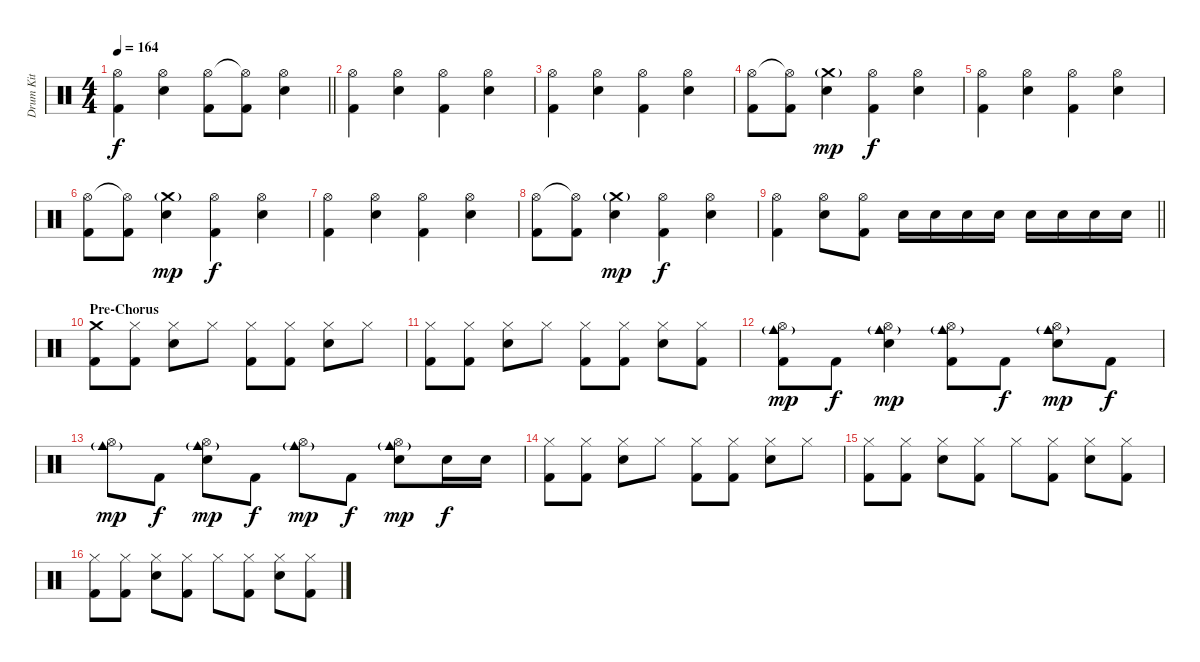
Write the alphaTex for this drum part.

\track ("Drum Kit" "Drum Kit") {instrument percussion}
\staff {score}
\articulation defaults
\ts (4 4)
\tempo 164
\clef neutral
\barLineRight lightlight
\ks c
("Hi-Hat (open)" "Kick (hit) 2").4{dy f} ("Hi-Hat (open)" "Electric Snare (hit)").4 ("Hi-Hat (open)" "Kick (hit) 2").8 ("Hi-Hat (open)"{t} "Kick (hit) 2").8 ("Hi-Hat (open)" "Electric Snare (hit)").4 |
("Hi-Hat (open)" "Kick (hit) 2").4 ("Hi-Hat (open)" "Electric Snare (hit)").4 ("Hi-Hat (open)" "Kick (hit) 2").4 ("Hi-Hat (open)" "Electric Snare (hit)").4 |
("Hi-Hat (open)" "Kick (hit) 2").4 ("Hi-Hat (open)" "Electric Snare (hit)").4 ("Hi-Hat (open)" "Kick (hit) 2").4 ("Hi-Hat (open)" "Electric Snare (hit)").4 |
("Hi-Hat (open)" "Kick (hit) 2").8 ("Hi-Hat (open)"{t} "Kick (hit) 2").8 ("Crash medium (hit)"{g} "Electric Snare (hit)").4{dy mp} ("Hi-Hat (open)" "Kick (hit) 2").4{dy f} ("Hi-Hat (open)" "Electric Snare (hit)").4 |
("Hi-Hat (open)" "Kick (hit) 2").4 ("Hi-Hat (open)" "Electric Snare (hit)").4 ("Hi-Hat (open)" "Kick (hit) 2").4 ("Hi-Hat (open)" "Electric Snare (hit)").4 |
("Hi-Hat (open)" "Kick (hit) 2").8 ("Hi-Hat (open)"{t} "Kick (hit) 2").8 ("Crash medium (hit)"{g} "Electric Snare (hit)").4{dy mp} ("Hi-Hat (open)" "Kick (hit) 2").4{dy f} ("Hi-Hat (open)" "Electric Snare (hit)").4 |
("Hi-Hat (open)" "Kick (hit) 2").4 ("Hi-Hat (open)" "Electric Snare (hit)").4 ("Hi-Hat (open)" "Kick (hit) 2").4 ("Hi-Hat (open)" "Electric Snare (hit)").4 |
("Hi-Hat (open)" "Kick (hit) 2").8 ("Hi-Hat (open)"{t} "Kick (hit) 2").8 ("Crash medium (hit)"{g} "Electric Snare (hit)").4{dy mp} ("Hi-Hat (open)" "Kick (hit) 2").4{dy f} ("Hi-Hat (open)" "Electric Snare (hit)").4 |
\barLineRight lightlight
("Hi-Hat (open)" "Kick (hit) 2").4 ("Hi-Hat (open)" "Electric Snare (hit)").8 ("Hi-Hat (open)" "Kick (hit) 2").8 "Electric Snare (hit)".16 "Electric Snare (hit)".16 "Electric Snare (hit)".16 "Electric Snare (hit)".16 "Electric Snare (hit)".16 "Electric Snare (hit)".16 "Electric Snare (hit)".16 "Electric Snare (hit)".16 |
\section ("" "Pre-Chorus")
("Crash medium (hit)" "Kick (hit) 2").8 ("Hi-Hat (closed)" "Kick (hit) 2").8 ("Hi-Hat (closed)" "Electric Snare (hit)").8 "Hi-Hat (closed)".8 ("Hi-Hat (closed)" "Kick (hit) 2").8 ("Hi-Hat (closed)" "Kick (hit) 2").8 ("Hi-Hat (closed)" "Electric Snare (hit)").8 "Hi-Hat (closed)".8 |
("Hi-Hat (closed)" "Kick (hit) 2").8 ("Hi-Hat (closed)" "Kick (hit) 2").8 ("Hi-Hat (closed)" "Electric Snare (hit)").8 "Hi-Hat (closed)".8 ("Hi-Hat (closed)" "Kick (hit) 2").8 ("Hi-Hat (closed)" "Kick (hit) 2").8 ("Hi-Hat (closed)" "Electric Snare (hit)").8 ("Hi-Hat (closed)" "Kick (hit) 2").8 |
("Hi-Hat (open)" "Cowbell medium (hit)"{g} "Kick (hit) 2").8{dy mp} "Kick (hit) 2".8{dy f} ("Hi-Hat (open)" "Cowbell medium (hit)"{g} "Electric Snare (hit)").4{dy mp} ("Hi-Hat (open)" "Cowbell medium (hit)"{g} "Kick (hit) 2").8 "Kick (hit) 2".8{dy f} ("Hi-Hat (open)" "Cowbell medium (hit)"{g} "Electric Snare (hit)").8{dy mp} "Kick (hit) 2".8{dy f} |
("Hi-Hat (open)" "Cowbell medium (hit)"{g}).8{dy mp} "Kick (hit) 2".8{dy f} ("Hi-Hat (open)" "Cowbell medium (hit)"{g} "Electric Snare (hit)").8{dy mp} "Kick (hit) 2".8{dy f} ("Hi-Hat (open)" "Cowbell medium (hit)"{g}).8{dy mp} "Kick (hit) 2".8{dy f} ("Hi-Hat (open)" "Cowbell medium (hit)"{g} "Electric Snare (hit)").8{dy mp} "Electric Snare (hit)".16{dy f} "Electric Snare (hit)".16 |
("Hi-Hat (closed)" "Kick (hit) 2").8 ("Hi-Hat (closed)" "Kick (hit) 2").8 ("Hi-Hat (closed)" "Electric Snare (hit)").8 "Hi-Hat (closed)".8 ("Hi-Hat (closed)" "Kick (hit) 2").8 ("Hi-Hat (closed)" "Kick (hit) 2").8 ("Hi-Hat (closed)" "Electric Snare (hit)").8 "Hi-Hat (closed)".8 |
("Hi-Hat (closed)" "Kick (hit) 2").8 ("Hi-Hat (closed)" "Kick (hit) 2").8 ("Hi-Hat (closed)" "Electric Snare (hit)").8 ("Hi-Hat (closed)" "Kick (hit) 2").8 "Hi-Hat (closed)".8 ("Hi-Hat (closed)" "Kick (hit) 2").8 ("Hi-Hat (closed)" "Electric Snare (hit)").8 ("Hi-Hat (closed)" "Kick (hit) 2").8 |
("Hi-Hat (closed)" "Kick (hit) 2").8 ("Hi-Hat (closed)" "Kick (hit) 2").8 ("Hi-Hat (closed)" "Electric Snare (hit)").8 ("Hi-Hat (closed)" "Kick (hit) 2").8 "Hi-Hat (closed)".8 ("Hi-Hat (closed)" "Kick (hit) 2").8 ("Hi-Hat (closed)" "Electric Snare (hit)").8 ("Hi-Hat (closed)" "Kick (hit) 2").8
